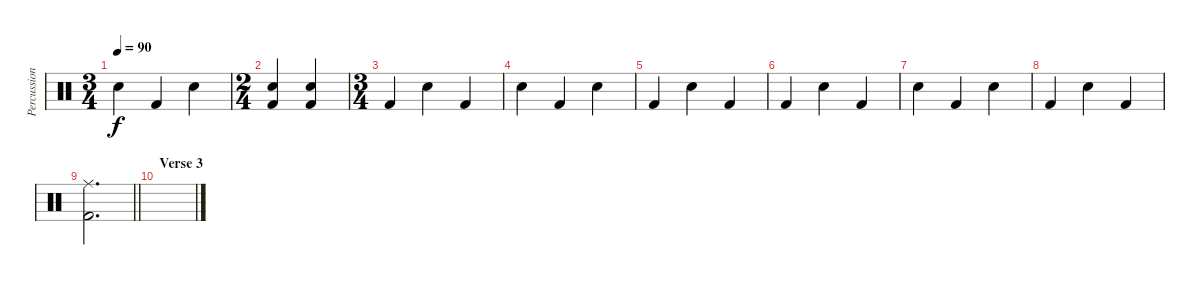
\track ("Percussion" "Percussion") {instrument percussion}
\staff {score}
\articulation defaults
\ts (3 4)
\tempo 90
\clef neutral
\ks c "Snare (hit) 2".4{dy f} "Kick (hit) 2".4 "Snare (hit) 2".4
|
\ts (2 4)
("Snare (hit) 2" "Kick (hit) 2").4 ("Snare (hit) 2" "Kick (hit) 2").4 |
\ts (3 4)
"Kick (hit) 2".4 "Snare (hit) 2".4 "Kick (hit) 2".4 |
"Snare (hit) 2".4 "Kick (hit) 2".4 "Snare (hit) 2".4 |
"Kick (hit) 2".4 "Snare (hit) 2".4 "Kick (hit) 2".4 |
"Kick (hit) 2".4 "Snare (hit) 2".4 "Kick (hit) 2".4 |
"Snare (hit) 2".4 "Kick (hit) 2".4 "Snare (hit) 2".4 |
"Kick (hit) 2".4 "Snare (hit) 2".4 "Kick (hit) 2".4 |
\barLineRight lightlight
("Ride (middle)" "Kick (hit) 2").2{d} |
\section ("" "Verse 3")
